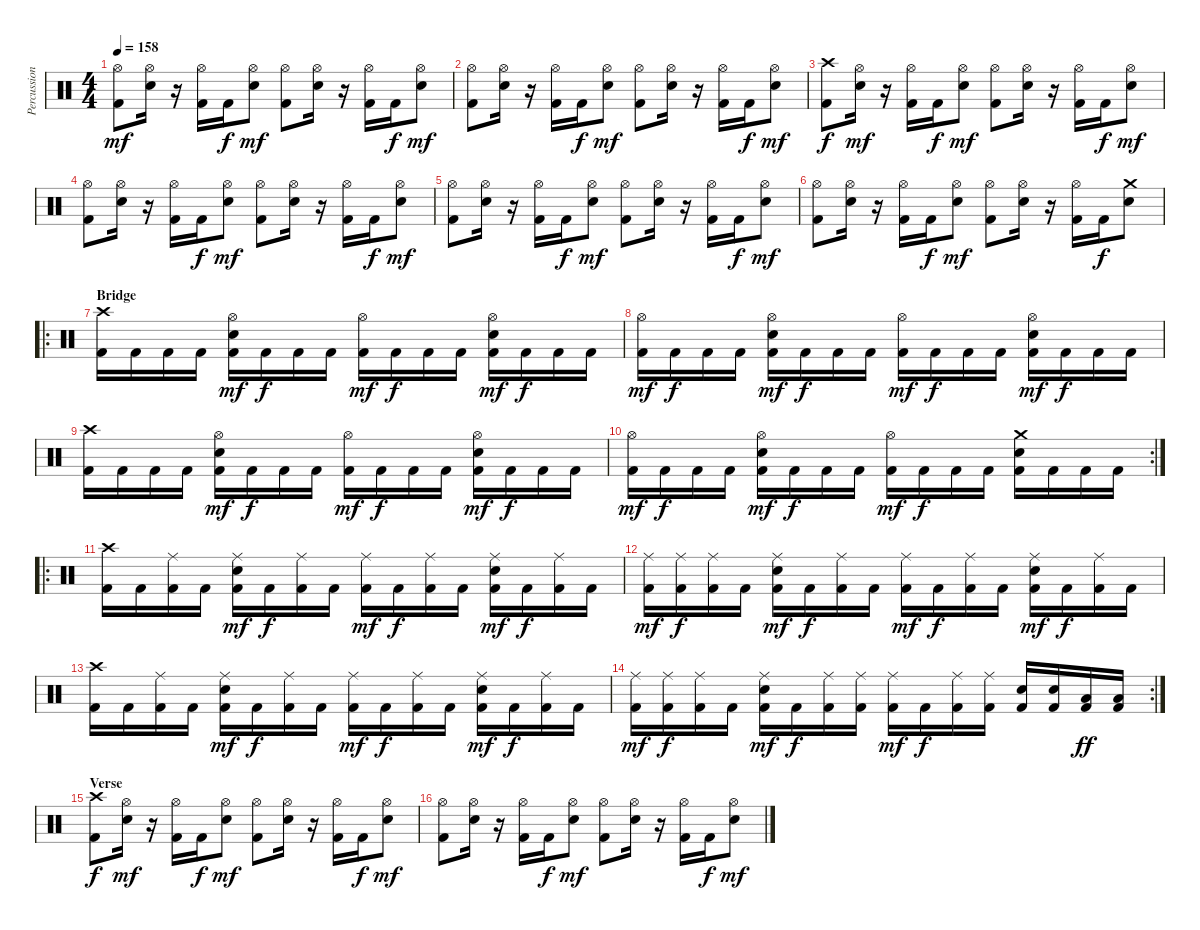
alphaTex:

\track ("Percussion" "Percussion") {instrument percussion}
\staff {score}
\articulation defaults
\ts (4 4)
\tempo 158
\clef neutral
\ks c
("Hi-Hat (open)" "Kick (hit) 2").8{dy mf} ("Hi-Hat (open)" "Electric Snare (hit)").16 r.16 ("Hi-Hat (open)" "Kick (hit) 2").16 "Kick (hit) 2".16{dy f} ("Hi-Hat (open)" "Electric Snare (hit)").8{dy mf} ("Hi-Hat (open)" "Kick (hit) 2").8 ("Hi-Hat (open)" "Electric Snare (hit)").16 r.16 ("Hi-Hat (open)" "Kick (hit) 2").16 "Kick (hit) 2".16{dy f} ("Hi-Hat (open)" "Electric Snare (hit)").8{dy mf} |
("Hi-Hat (open)" "Kick (hit) 2").8 ("Hi-Hat (open)" "Electric Snare (hit)").16 r.16 ("Hi-Hat (open)" "Kick (hit) 2").16 "Kick (hit) 2".16{dy f} ("Hi-Hat (open)" "Electric Snare (hit)").8{dy mf} ("Hi-Hat (open)" "Kick (hit) 2").8 ("Hi-Hat (open)" "Electric Snare (hit)").16 r.16 ("Hi-Hat (open)" "Kick (hit) 2").16 "Kick (hit) 2".16{dy f} ("Hi-Hat (open)" "Electric Snare (hit)").8{dy mf} |
("Crash high (hit)" "Kick (hit) 2").8{dy f} ("Hi-Hat (open)" "Electric Snare (hit)").16{dy mf} r.16 ("Hi-Hat (open)" "Kick (hit) 2").16 "Kick (hit) 2".16{dy f} ("Hi-Hat (open)" "Electric Snare (hit)").8{dy mf} ("Hi-Hat (open)" "Kick (hit) 2").8 ("Hi-Hat (open)" "Electric Snare (hit)").16 r.16 ("Hi-Hat (open)" "Kick (hit) 2").16 "Kick (hit) 2".16{dy f} ("Hi-Hat (open)" "Electric Snare (hit)").8{dy mf} |
("Hi-Hat (open)" "Kick (hit) 2").8 ("Hi-Hat (open)" "Electric Snare (hit)").16 r.16 ("Hi-Hat (open)" "Kick (hit) 2").16 "Kick (hit) 2".16{dy f} ("Hi-Hat (open)" "Electric Snare (hit)").8{dy mf} ("Hi-Hat (open)" "Kick (hit) 2").8 ("Hi-Hat (open)" "Electric Snare (hit)").16 r.16 ("Hi-Hat (open)" "Kick (hit) 2").16 "Kick (hit) 2".16{dy f} ("Hi-Hat (open)" "Electric Snare (hit)").8{dy mf} |
("Hi-Hat (open)" "Kick (hit) 2").8 ("Hi-Hat (open)" "Electric Snare (hit)").16 r.16 ("Hi-Hat (open)" "Kick (hit) 2").16 "Kick (hit) 2".16{dy f} ("Hi-Hat (open)" "Electric Snare (hit)").8{dy mf} ("Hi-Hat (open)" "Kick (hit) 2").8 ("Hi-Hat (open)" "Electric Snare (hit)").16 r.16 ("Hi-Hat (open)" "Kick (hit) 2").16 "Kick (hit) 2".16{dy f} ("Hi-Hat (open)" "Electric Snare (hit)").8{dy mf} |
("Hi-Hat (open)" "Kick (hit) 2").8 ("Hi-Hat (open)" "Electric Snare (hit)").16 r.16 ("Hi-Hat (open)" "Kick (hit) 2").16 "Kick (hit) 2".16{dy f} ("Hi-Hat (open)" "Electric Snare (hit)").8{dy mf} ("Hi-Hat (open)" "Kick (hit) 2").8 ("Hi-Hat (open)" "Electric Snare (hit)").16 r.16 ("Hi-Hat (open)" "Kick (hit) 2").16 "Kick (hit) 2".16{dy f} ("Crash medium (hit)" "Electric Snare (hit)").8 |
\ro
\section ("" "Bridge")
("Crash high (hit)" "Kick (hit) 2").16 "Kick (hit) 2".16 "Kick (hit) 2".16 "Kick (hit) 2".16 ("Hi-Hat (open)" "Electric Snare (hit)" "Kick (hit) 2").16{dy mf} "Kick (hit) 2".16{dy f} "Kick (hit) 2".16 "Kick (hit) 2".16 ("Hi-Hat (open)" "Kick (hit) 2").16{dy mf} "Kick (hit) 2".16{dy f} "Kick (hit) 2".16 "Kick (hit) 2".16 ("Hi-Hat (open)" "Electric Snare (hit)" "Kick (hit) 2").16{dy mf} "Kick (hit) 2".16{dy f} "Kick (hit) 2".16 "Kick (hit) 2".16 |
("Hi-Hat (open)" "Kick (hit) 2").16{dy mf} "Kick (hit) 2".16{dy f} "Kick (hit) 2".16 "Kick (hit) 2".16 ("Hi-Hat (open)" "Electric Snare (hit)" "Kick (hit) 2").16{dy mf} "Kick (hit) 2".16{dy f} "Kick (hit) 2".16 "Kick (hit) 2".16 ("Hi-Hat (open)" "Kick (hit) 2").16{dy mf} "Kick (hit) 2".16{dy f} "Kick (hit) 2".16 "Kick (hit) 2".16 ("Hi-Hat (open)" "Electric Snare (hit)" "Kick (hit) 2").16{dy mf} "Kick (hit) 2".16{dy f} "Kick (hit) 2".16 "Kick (hit) 2".16 |
("Crash high (hit)" "Kick (hit) 2").16 "Kick (hit) 2".16 "Kick (hit) 2".16 "Kick (hit) 2".16 ("Hi-Hat (open)" "Electric Snare (hit)" "Kick (hit) 2").16{dy mf} "Kick (hit) 2".16{dy f} "Kick (hit) 2".16 "Kick (hit) 2".16 ("Hi-Hat (open)" "Kick (hit) 2").16{dy mf} "Kick (hit) 2".16{dy f} "Kick (hit) 2".16 "Kick (hit) 2".16 ("Hi-Hat (open)" "Electric Snare (hit)" "Kick (hit) 2").16{dy mf} "Kick (hit) 2".16{dy f} "Kick (hit) 2".16 "Kick (hit) 2".16 |
\rc 2
("Hi-Hat (open)" "Kick (hit) 2").16{dy mf} "Kick (hit) 2".16{dy f} "Kick (hit) 2".16 "Kick (hit) 2".16 ("Hi-Hat (open)" "Electric Snare (hit)" "Kick (hit) 2").16{dy mf} "Kick (hit) 2".16{dy f} "Kick (hit) 2".16 "Kick (hit) 2".16 ("Hi-Hat (open)" "Kick (hit) 2").16{dy mf} "Kick (hit) 2".16{dy f} "Kick (hit) 2".16 "Kick (hit) 2".16 ("Crash medium (hit)" "Electric Snare (hit)" "Kick (hit) 2").16 "Kick (hit) 2".16 "Kick (hit) 2".16 "Kick (hit) 2".16 |
\ro
("Crash high (hit)" "Kick (hit) 2").16 "Kick (hit) 2".16 ("Ride (middle)" "Kick (hit) 2").16 "Kick (hit) 2".16 ("Ride (middle)" "Electric Snare (hit)" "Kick (hit) 2").16{dy mf} "Kick (hit) 2".16{dy f} ("Ride (middle)" "Kick (hit) 2").16 "Kick (hit) 2".16 ("Ride (middle)" "Kick (hit) 2").16{dy mf} "Kick (hit) 2".16{dy f} ("Ride (middle)" "Kick (hit) 2").16 "Kick (hit) 2".16 ("Ride (middle)" "Electric Snare (hit)" "Kick (hit) 2").16{dy mf} "Kick (hit) 2".16{dy f} ("Ride (middle)" "Kick (hit) 2").16 "Kick (hit) 2".16 |
("Ride (middle)" "Kick (hit) 2").16{dy mf} ("Ride (middle)" "Kick (hit) 2").16{dy f} ("Ride (middle)" "Kick (hit) 2").16 "Kick (hit) 2".16 ("Ride (middle)" "Electric Snare (hit)" "Kick (hit) 2").16{dy mf} "Kick (hit) 2".16{dy f} ("Ride (middle)" "Kick (hit) 2").16 "Kick (hit) 2".16 ("Ride (middle)" "Kick (hit) 2").16{dy mf} "Kick (hit) 2".16{dy f} ("Ride (middle)" "Kick (hit) 2").16 "Kick (hit) 2".16 ("Ride (middle)" "Electric Snare (hit)" "Kick (hit) 2").16{dy mf} "Kick (hit) 2".16{dy f} ("Ride (middle)" "Kick (hit) 2").16 "Kick (hit) 2".16 |
("Crash high (hit)" "Kick (hit) 2").16 "Kick (hit) 2".16 ("Ride (middle)" "Kick (hit) 2").16 "Kick (hit) 2".16 ("Ride (middle)" "Electric Snare (hit)" "Kick (hit) 2").16{dy mf} "Kick (hit) 2".16{dy f} ("Ride (middle)" "Kick (hit) 2").16 "Kick (hit) 2".16 ("Ride (middle)" "Kick (hit) 2").16{dy mf} "Kick (hit) 2".16{dy f} ("Ride (middle)" "Kick (hit) 2").16 "Kick (hit) 2".16 ("Ride (middle)" "Electric Snare (hit)" "Kick (hit) 2").16{dy mf} "Kick (hit) 2".16{dy f} ("Ride (middle)" "Kick (hit) 2").16 "Kick (hit) 2".16 |
\rc 2
("Ride (middle)" "Kick (hit) 2").16{dy mf} ("Ride (middle)" "Kick (hit) 2").16{dy f} ("Ride (middle)" "Kick (hit) 2").16 "Kick (hit) 2".16 ("Ride (middle)" "Electric Snare (hit)" "Kick (hit) 2").16{dy mf} "Kick (hit) 2".16{dy f} ("Ride (middle)" "Kick (hit) 2").16 ("Ride (middle)" "Kick (hit) 2").16 ("Ride (middle)" "Kick (hit) 2").16{dy mf} "Kick (hit) 2".16{dy f} ("Ride (middle)" "Kick (hit) 2").16 ("Ride (middle)" "Kick (hit) 2").16 ("Electric Snare (hit)" "Kick (hit) 2").16 ("Electric Snare (hit)" "Kick (hit) 2").16 ("Low Tom (hit)" "Kick (hit) 2").16{dy ff} ("Low Tom (hit)" "Kick (hit) 2").16 |
\section ("" "Verse")
("Crash high (hit)" "Kick (hit) 2").8{dy f} ("Hi-Hat (open)" "Electric Snare (hit)").16{dy mf} r.16 ("Hi-Hat (open)" "Kick (hit) 2").16 "Kick (hit) 2".16{dy f} ("Hi-Hat (open)" "Electric Snare (hit)").8{dy mf} ("Hi-Hat (open)" "Kick (hit) 2").8 ("Hi-Hat (open)" "Electric Snare (hit)").16 r.16 ("Hi-Hat (open)" "Kick (hit) 2").16 "Kick (hit) 2".16{dy f} ("Hi-Hat (open)" "Electric Snare (hit)").8{dy mf} |
("Hi-Hat (open)" "Kick (hit) 2").8 ("Hi-Hat (open)" "Electric Snare (hit)").16 r.16 ("Hi-Hat (open)" "Kick (hit) 2").16 "Kick (hit) 2".16{dy f} ("Hi-Hat (open)" "Electric Snare (hit)").8{dy mf} ("Hi-Hat (open)" "Kick (hit) 2").8 ("Hi-Hat (open)" "Electric Snare (hit)").16 r.16 ("Hi-Hat (open)" "Kick (hit) 2").16 "Kick (hit) 2".16{dy f} ("Hi-Hat (open)" "Electric Snare (hit)").8{dy mf}
